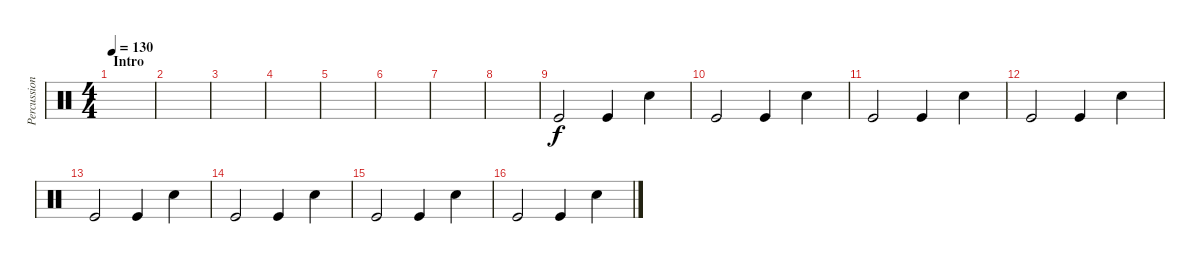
\track ("Percussion" "Percussion") {instrument percussion}
\staff {score}
\articulation defaults
\ts (4 4)
\section ("" "Intro")
\tempo 130
\tempo 120
\tempo 130
\clef neutral
\ks c
|
|
|
|
|
|
|
|
"Kick (hit)".2 "Kick (hit)".4 "Metronome (bell)".4 |
"Kick (hit)".2 "Kick (hit)".4 "Metronome (bell)".4 |
"Kick (hit)".2 "Kick (hit)".4 "Metronome (bell)".4 |
"Kick (hit)".2 "Kick (hit)".4 "Metronome (bell)".4 |
"Kick (hit)".2 "Kick (hit)".4 "Metronome (bell)".4 |
"Kick (hit)".2 "Kick (hit)".4 "Metronome (bell)".4 |
"Kick (hit)".2 "Kick (hit)".4 "Metronome (bell)".4 |
"Kick (hit)".2 "Kick (hit)".4 "Metronome (bell)".4
